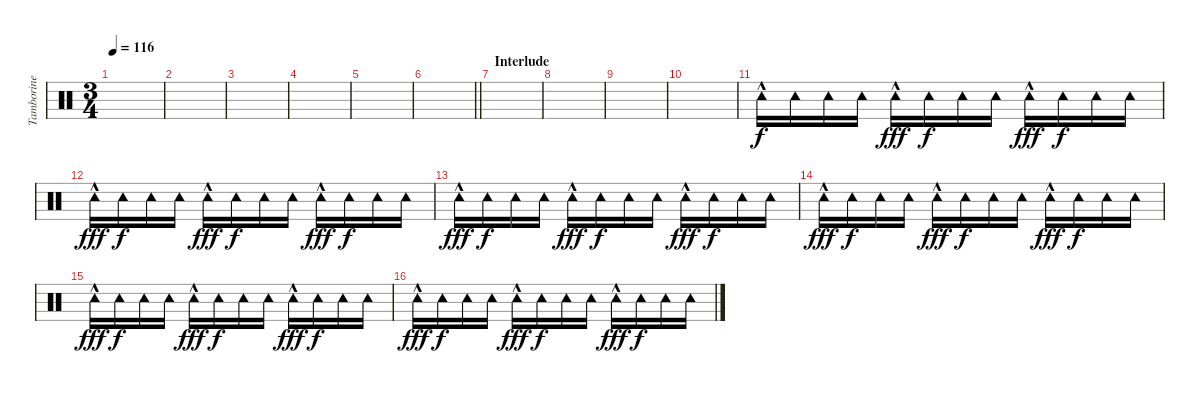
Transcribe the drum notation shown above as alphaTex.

\track ("Tamborine" "Tamborine") {instrument percussion}
\staff {score}
\articulation defaults
\ts (3 4)
\tempo 116
\clef neutral
\ks c
|
|
|
|
|
\barLineRight lightlight
|
\section ("" "Interlude")
|
|
|
|
"Tambourine (hit)"{hac}.16{volume 3} "Tambourine (hit)".16{dy f} "Tambourine (hit)".16 "Tambourine (hit)".16 "Tambourine (hit)"{hac}.16{dy fff} "Tambourine (hit)".16{dy f} "Tambourine (hit)".16 "Tambourine (hit)".16 "Tambourine (hit)"{hac}.16{dy fff} "Tambourine (hit)".16{dy f} "Tambourine (hit)".16 "Tambourine (hit)".16 |
"Tambourine (hit)"{hac}.16{dy fff} "Tambourine (hit)".16{dy f} "Tambourine (hit)".16 "Tambourine (hit)".16 "Tambourine (hit)"{hac}.16{dy fff} "Tambourine (hit)".16{dy f} "Tambourine (hit)".16 "Tambourine (hit)".16 "Tambourine (hit)"{hac}.16{dy fff} "Tambourine (hit)".16{dy f} "Tambourine (hit)".16 "Tambourine (hit)".16 |
"Tambourine (hit)"{hac}.16{dy fff} "Tambourine (hit)".16{dy f} "Tambourine (hit)".16 "Tambourine (hit)".16 "Tambourine (hit)"{hac}.16{dy fff} "Tambourine (hit)".16{dy f} "Tambourine (hit)".16 "Tambourine (hit)".16 "Tambourine (hit)"{hac}.16{dy fff} "Tambourine (hit)".16{dy f} "Tambourine (hit)".16 "Tambourine (hit)".16 |
"Tambourine (hit)"{hac}.16{dy fff} "Tambourine (hit)".16{dy f} "Tambourine (hit)".16 "Tambourine (hit)".16 "Tambourine (hit)"{hac}.16{dy fff} "Tambourine (hit)".16{dy f} "Tambourine (hit)".16 "Tambourine (hit)".16 "Tambourine (hit)"{hac}.16{dy fff} "Tambourine (hit)".16{dy f} "Tambourine (hit)".16 "Tambourine (hit)".16 |
"Tambourine (hit)"{hac}.16{dy fff} "Tambourine (hit)".16{dy f} "Tambourine (hit)".16 "Tambourine (hit)".16 "Tambourine (hit)"{hac}.16{dy fff} "Tambourine (hit)".16{dy f} "Tambourine (hit)".16 "Tambourine (hit)".16 "Tambourine (hit)"{hac}.16{dy fff} "Tambourine (hit)".16{dy f} "Tambourine (hit)".16 "Tambourine (hit)".16 |
"Tambourine (hit)"{hac}.16{dy fff} "Tambourine (hit)".16{dy f} "Tambourine (hit)".16 "Tambourine (hit)".16 "Tambourine (hit)"{hac}.16{dy fff} "Tambourine (hit)".16{dy f} "Tambourine (hit)".16 "Tambourine (hit)".16 "Tambourine (hit)"{hac}.16{dy fff} "Tambourine (hit)".16{dy f} "Tambourine (hit)".16 "Tambourine (hit)".16
